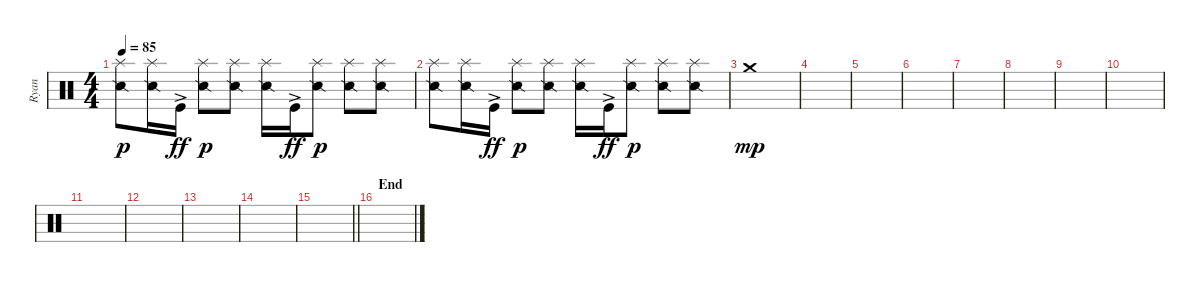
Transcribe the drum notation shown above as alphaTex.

\track ("Ryan" "Ryan") {instrument percussion}
\staff {score}
\articulation defaults
\ts (4 4)
\tempo 85
\clef neutral
\ks c
("Splash (hit)" "Snare (side stick) 2").8{dy p} ("Splash (hit)" "Snare (side stick) 2").16 "Kick (hit)"{ac}.16{dy ff} ("Splash (hit)" "Snare (side stick) 2").8{dy p} ("Splash (hit)" "Snare (side stick) 2").8 ("Splash (hit)" "Snare (side stick) 2").16 "Kick (hit)"{ac}.16{dy ff} ("Splash (hit)" "Snare (side stick) 2").8{dy p} ("Splash (hit)" "Snare (side stick) 2").8 ("Splash (hit)" "Snare (side stick) 2").8 |
("Splash (hit)" "Snare (side stick) 2").8 ("Splash (hit)" "Snare (side stick) 2").16 "Kick (hit)"{ac}.16{dy ff} ("Splash (hit)" "Snare (side stick) 2").8{dy p} ("Splash (hit)" "Snare (side stick) 2").8 ("Splash (hit)" "Snare (side stick) 2").16 "Kick (hit)"{ac}.16{dy ff} ("Splash (hit)" "Snare (side stick) 2").8{dy p} ("Splash (hit)" "Snare (side stick) 2").8 ("Splash (hit)" "Snare (side stick) 2").8 |
"Crash medium (hit)".1{dy mp} |
|
|
|
|
|
|
|
|
|
|
|
\barLineRight lightlight
|
\section ("" "End")
